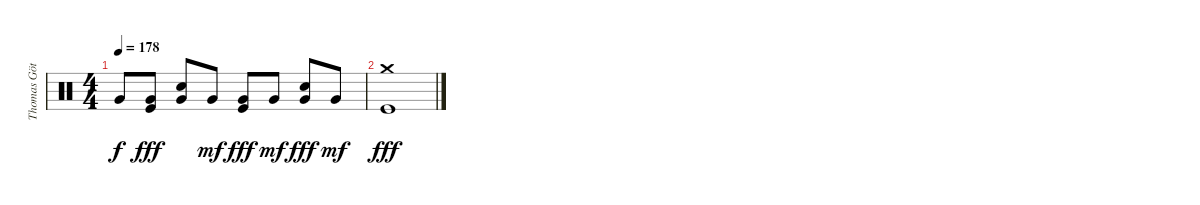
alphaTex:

\track ("Thomas Götz" "Thomas Göt") {instrument percussion}
\staff {score}
\articulation defaults
\ts (4 4)
\tempo 178
\clef neutral
\ks c "Very Low Tom (hit)".8{dy f}
("Very Low Tom (hit)" "Kick (hit)").8{dy fff} ("Very Low Tom (hit)" "Electric Snare (hit)").8 "Very Low Tom (hit)".8{dy mf} ("Very Low Tom (hit)" "Kick (hit)").8{dy fff} "Very Low Tom (hit)".8{dy mf} ("Very Low Tom (hit)" "Electric Snare (hit)").8{dy fff} "Very Low Tom (hit)".8{dy mf} |
("Crash medium (hit)" "Kick (hit)").1{dy fff}
